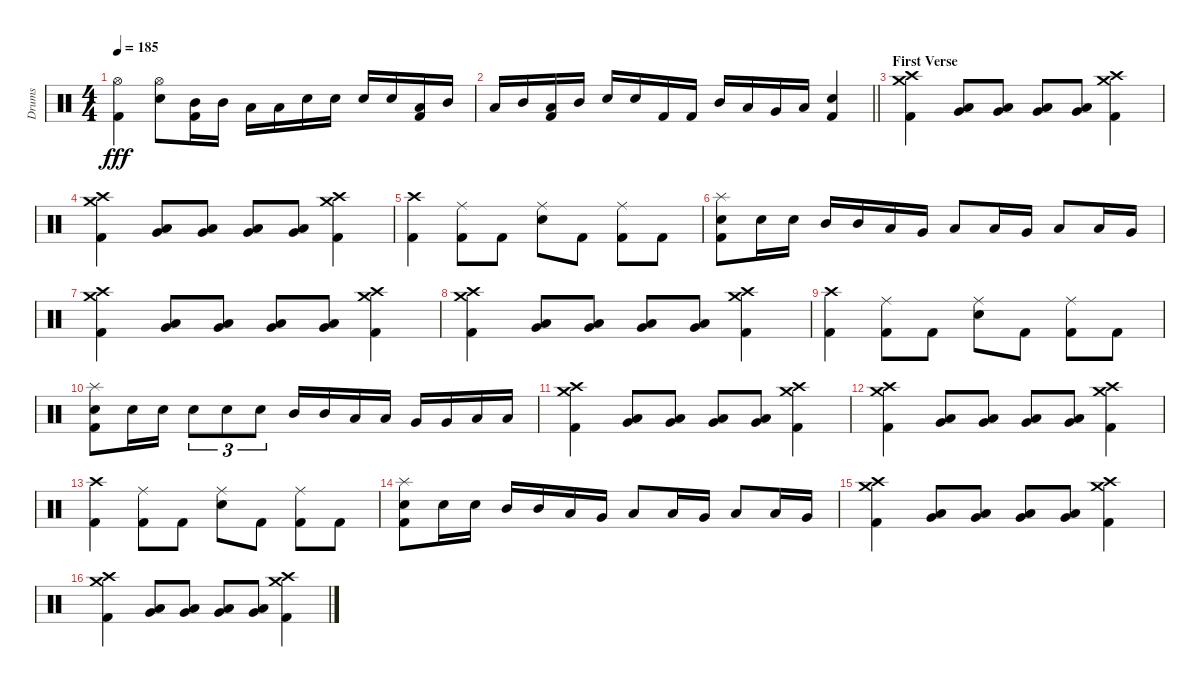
\track ("Drums" "Drums") {instrument percussion}
\staff {score}
\articulation defaults
\ts (4 4)
\tempo 185
\clef neutral
\ks c
("Hi-Hat (open)" "Kick (hit) 2").4{dy fff} ("Hi-Hat (open)" "Electric Snare (hit)").8 ("Mid Tom (hit)" "Kick (hit) 2").16 "Mid Tom (hit)".16 "Low Tom (hit)".16 "Low Tom (hit)".16 "Electric Snare (hit)".16 "Electric Snare (hit)".16 "Electric Snare (hit)".16 "Electric Snare (hit)".16 ("Low Tom (hit)" "Kick (hit) 2").16 "Mid Tom (hit)".16 |
\barLineRight lightlight "Low Tom (hit)".16 "Mid Tom (hit)".16
("Low Tom (hit)" "Kick (hit) 2").16 "Mid Tom (hit)".16 "Electric Snare (hit)".16 "Electric Snare (hit)".16 "Kick (hit) 2".16 "Kick (hit) 2".16 "Mid Tom (hit)".16 "Low Tom (hit)".16 "Very Low Tom (hit)".16 "Low Floor Tom (hit)".16 ("Electric Snare (hit)" "Kick (hit) 2").4 |
\section ("" "First Verse")
("Crash high (hit)" "Crash medium (hit)" "Kick (hit) 2").4 ("Very Low Tom (hit)" "Low Tom (hit)").8 ("Very Low Tom (hit)" "Low Floor Tom (hit)").8 ("Very Low Tom (hit)" "Low Floor Tom (hit)").8 ("Very Low Tom (hit)" "Low Floor Tom (hit)").8 ("Crash high (hit)" "Crash medium (hit)" "Kick (hit) 2").4 |
("Crash high (hit)" "Crash medium (hit)" "Kick (hit) 2").4 ("Very Low Tom (hit)" "Low Tom (hit)").8 ("Very Low Tom (hit)" "Low Floor Tom (hit)").8 ("Very Low Tom (hit)" "Low Floor Tom (hit)").8 ("Very Low Tom (hit)" "Low Floor Tom (hit)").8 ("Crash high (hit)" "Crash medium (hit)" "Kick (hit) 2").4 |
("Crash high (hit)" "Kick (hit) 2").4 ("Ride (middle)" "Kick (hit) 2").8 "Kick (hit) 2".8 ("Ride (middle)" "Electric Snare (hit)").8 "Kick (hit) 2".8 ("Ride (middle)" "Kick (hit) 2").8 "Kick (hit) 2".8 |
("Splash (hit)" "Electric Snare (hit)" "Kick (hit) 2").8 "Electric Snare (hit)".16 "Electric Snare (hit)".16 "Mid Tom (hit)".16 "Mid Tom (hit)".16 "Low Tom (hit)".16 "Very Low Tom (hit)".16 "Low Tom (hit)".8 "Low Tom (hit)".16 "Very Low Tom (hit)".16 "Low Floor Tom (hit)".8 "Low Floor Tom (hit)".16 "Very Low Tom (hit)".16 |
("Crash high (hit)" "Crash medium (hit)" "Kick (hit) 2").4 ("Very Low Tom (hit)" "Low Tom (hit)").8 ("Very Low Tom (hit)" "Low Floor Tom (hit)").8 ("Very Low Tom (hit)" "Low Floor Tom (hit)").8 ("Very Low Tom (hit)" "Low Floor Tom (hit)").8 ("Crash high (hit)" "Crash medium (hit)" "Kick (hit) 2").4 |
("Crash high (hit)" "Crash medium (hit)" "Kick (hit) 2").4 ("Very Low Tom (hit)" "Low Tom (hit)").8 ("Very Low Tom (hit)" "Low Floor Tom (hit)").8 ("Very Low Tom (hit)" "Low Floor Tom (hit)").8 ("Very Low Tom (hit)" "Low Floor Tom (hit)").8 ("Crash high (hit)" "Crash medium (hit)" "Kick (hit) 2").4 |
("Crash high (hit)" "Kick (hit) 2").4 ("Ride (middle)" "Kick (hit) 2").8 "Kick (hit) 2".8 ("Ride (middle)" "Electric Snare (hit)").8 "Kick (hit) 2".8 ("Ride (middle)" "Kick (hit) 2").8 "Kick (hit) 2".8 |
("Splash (hit)" "Electric Snare (hit)" "Kick (hit) 2").8 "Electric Snare (hit)".16 "Electric Snare (hit)".16 "Electric Snare (hit)".8{tu (3 2)} "Electric Snare (hit)".8{tu (3 2)} "Electric Snare (hit)".8{tu (3 2)} "Mid Tom (hit)".16 "Mid Tom (hit)".16 "Low Tom (hit)".16 "Low Tom (hit)".16 "Very Low Tom (hit)".16 "Very Low Tom (hit)".16 "Low Floor Tom (hit)".16 "Low Floor Tom (hit)".16 |
("Crash high (hit)" "Crash medium (hit)" "Kick (hit) 2").4 ("Very Low Tom (hit)" "Low Tom (hit)").8 ("Very Low Tom (hit)" "Low Floor Tom (hit)").8 ("Very Low Tom (hit)" "Low Floor Tom (hit)").8 ("Very Low Tom (hit)" "Low Floor Tom (hit)").8 ("Crash high (hit)" "Crash medium (hit)" "Kick (hit) 2").4 |
("Crash high (hit)" "Crash medium (hit)" "Kick (hit) 2").4 ("Very Low Tom (hit)" "Low Tom (hit)").8 ("Very Low Tom (hit)" "Low Floor Tom (hit)").8 ("Very Low Tom (hit)" "Low Floor Tom (hit)").8 ("Very Low Tom (hit)" "Low Floor Tom (hit)").8 ("Crash high (hit)" "Crash medium (hit)" "Kick (hit) 2").4 |
("Crash high (hit)" "Kick (hit) 2").4 ("Ride (middle)" "Kick (hit) 2").8 "Kick (hit) 2".8 ("Ride (middle)" "Electric Snare (hit)").8 "Kick (hit) 2".8 ("Ride (middle)" "Kick (hit) 2").8 "Kick (hit) 2".8 |
("Splash (hit)" "Electric Snare (hit)" "Kick (hit) 2").8 "Electric Snare (hit)".16 "Electric Snare (hit)".16 "Mid Tom (hit)".16 "Mid Tom (hit)".16 "Low Tom (hit)".16 "Very Low Tom (hit)".16 "Low Tom (hit)".8 "Low Tom (hit)".16 "Very Low Tom (hit)".16 "Low Floor Tom (hit)".8 "Low Floor Tom (hit)".16 "Very Low Tom (hit)".16 |
("Crash high (hit)" "Crash medium (hit)" "Kick (hit) 2").4 ("Very Low Tom (hit)" "Low Tom (hit)").8 ("Very Low Tom (hit)" "Low Floor Tom (hit)").8 ("Very Low Tom (hit)" "Low Floor Tom (hit)").8 ("Very Low Tom (hit)" "Low Floor Tom (hit)").8 ("Crash high (hit)" "Crash medium (hit)" "Kick (hit) 2").4 |
("Crash high (hit)" "Crash medium (hit)" "Kick (hit) 2").4 ("Very Low Tom (hit)" "Low Tom (hit)").8 ("Very Low Tom (hit)" "Low Floor Tom (hit)").8 ("Very Low Tom (hit)" "Low Floor Tom (hit)").8 ("Very Low Tom (hit)" "Low Floor Tom (hit)").8 ("Crash high (hit)" "Crash medium (hit)" "Kick (hit) 2").4
